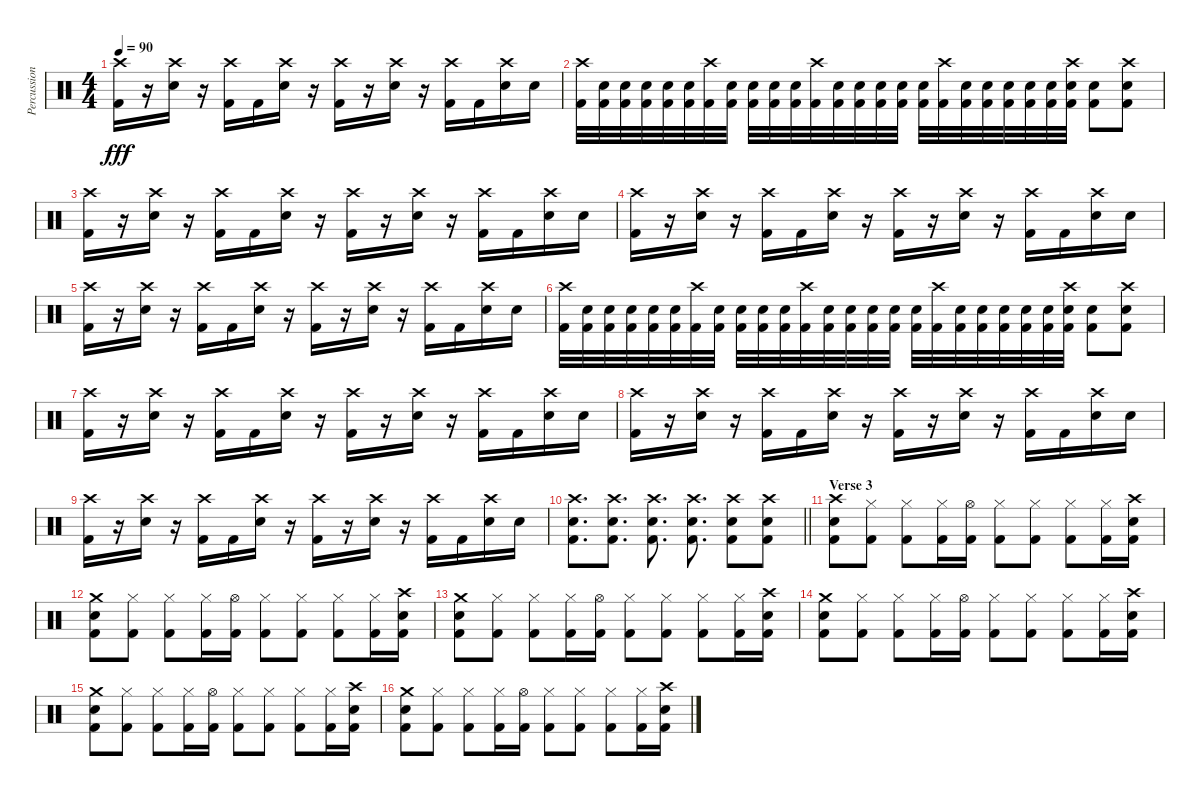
\track ("Percussion" "Percussion") {instrument percussion}
\staff {score}
\articulation defaults
\ts (4 4)
\tempo 90
\clef neutral
\ks c
("Crash high (hit)" "Kick (hit) 2").16{dy fff} r.16 ("Crash high (hit)" "Electric Snare (hit)").16 r.16 ("Crash high (hit)" "Kick (hit) 2").16 "Kick (hit) 2".16 ("Crash high (hit)" "Electric Snare (hit)").16 r.16 ("Crash high (hit)" "Kick (hit) 2").16 r.16 ("Crash high (hit)" "Electric Snare (hit)").16 r.16 ("Crash high (hit)" "Kick (hit) 2").16 "Kick (hit) 2".16 ("Crash high (hit)" "Electric Snare (hit)").16 "Electric Snare (hit)".16 |
("Crash high (hit)" "Kick (hit) 2").32 ("Electric Snare (hit)" "Kick (hit) 2").32 ("Electric Snare (hit)" "Kick (hit) 2").32 ("Electric Snare (hit)" "Kick (hit) 2").32 ("Electric Snare (hit)" "Kick (hit) 2").32 ("Electric Snare (hit)" "Kick (hit) 2").32 ("Crash high (hit)" "Kick (hit) 2").32 ("Electric Snare (hit)" "Kick (hit) 2").32 ("Electric Snare (hit)" "Kick (hit) 2").32 ("Electric Snare (hit)" "Kick (hit) 2").32 ("Electric Snare (hit)" "Kick (hit) 2").32 ("Crash high (hit)" "Kick (hit) 2").32 ("Electric Snare (hit)" "Kick (hit) 2").32 ("Electric Snare (hit)" "Kick (hit) 2").32 ("Electric Snare (hit)" "Kick (hit) 2").32 ("Electric Snare (hit)" "Kick (hit) 2").32 ("Electric Snare (hit)" "Kick (hit) 2").32 ("Crash high (hit)" "Kick (hit) 2").32 ("Electric Snare (hit)" "Kick (hit) 2").32 ("Electric Snare (hit)" "Kick (hit) 2").32 ("Electric Snare (hit)" "Kick (hit) 2").32 ("Electric Snare (hit)" "Kick (hit) 2").32 ("Electric Snare (hit)" "Kick (hit) 2").32 ("Crash high (hit)" "Electric Snare (hit)" "Kick (hit) 2").32 ("Electric Snare (hit)" "Kick (hit) 2").8 ("Crash high (hit)" "Electric Snare (hit)" "Kick (hit) 2").8 |
("Crash high (hit)" "Kick (hit) 2").16 r.16 ("Crash high (hit)" "Electric Snare (hit)").16 r.16 ("Crash high (hit)" "Kick (hit) 2").16 "Kick (hit) 2".16 ("Crash high (hit)" "Electric Snare (hit)").16 r.16 ("Crash high (hit)" "Kick (hit) 2").16 r.16 ("Crash high (hit)" "Electric Snare (hit)").16 r.16 ("Crash high (hit)" "Kick (hit) 2").16 "Kick (hit) 2".16 ("Crash high (hit)" "Electric Snare (hit)").16 "Electric Snare (hit)".16 |
("Crash high (hit)" "Kick (hit) 2").16 r.16 ("Crash high (hit)" "Electric Snare (hit)").16 r.16 ("Crash high (hit)" "Kick (hit) 2").16 "Kick (hit) 2".16 ("Crash high (hit)" "Electric Snare (hit)").16 r.16 ("Crash high (hit)" "Kick (hit) 2").16 r.16 ("Crash high (hit)" "Electric Snare (hit)").16 r.16 ("Crash high (hit)" "Kick (hit) 2").16 "Kick (hit) 2".16 ("Crash high (hit)" "Electric Snare (hit)").16 "Electric Snare (hit)".16 |
("Crash high (hit)" "Kick (hit) 2").16 r.16 ("Crash high (hit)" "Electric Snare (hit)").16 r.16 ("Crash high (hit)" "Kick (hit) 2").16 "Kick (hit) 2".16 ("Crash high (hit)" "Electric Snare (hit)").16 r.16 ("Crash high (hit)" "Kick (hit) 2").16 r.16 ("Crash high (hit)" "Electric Snare (hit)").16 r.16 ("Crash high (hit)" "Kick (hit) 2").16 "Kick (hit) 2".16 ("Crash high (hit)" "Electric Snare (hit)").16 "Electric Snare (hit)".16 |
("Crash high (hit)" "Kick (hit) 2").32 ("Electric Snare (hit)" "Kick (hit) 2").32 ("Electric Snare (hit)" "Kick (hit) 2").32 ("Electric Snare (hit)" "Kick (hit) 2").32 ("Electric Snare (hit)" "Kick (hit) 2").32 ("Electric Snare (hit)" "Kick (hit) 2").32 ("Crash high (hit)" "Kick (hit) 2").32 ("Electric Snare (hit)" "Kick (hit) 2").32 ("Electric Snare (hit)" "Kick (hit) 2").32 ("Electric Snare (hit)" "Kick (hit) 2").32 ("Electric Snare (hit)" "Kick (hit) 2").32 ("Crash high (hit)" "Kick (hit) 2").32 ("Electric Snare (hit)" "Kick (hit) 2").32 ("Electric Snare (hit)" "Kick (hit) 2").32 ("Electric Snare (hit)" "Kick (hit) 2").32 ("Electric Snare (hit)" "Kick (hit) 2").32 ("Electric Snare (hit)" "Kick (hit) 2").32 ("Crash high (hit)" "Kick (hit) 2").32 ("Electric Snare (hit)" "Kick (hit) 2").32 ("Electric Snare (hit)" "Kick (hit) 2").32 ("Electric Snare (hit)" "Kick (hit) 2").32 ("Electric Snare (hit)" "Kick (hit) 2").32 ("Electric Snare (hit)" "Kick (hit) 2").32 ("Crash high (hit)" "Electric Snare (hit)" "Kick (hit) 2").32 ("Electric Snare (hit)" "Kick (hit) 2").8 ("Crash high (hit)" "Electric Snare (hit)" "Kick (hit) 2").8 |
("Crash high (hit)" "Kick (hit) 2").16 r.16 ("Crash high (hit)" "Electric Snare (hit)").16 r.16 ("Crash high (hit)" "Kick (hit) 2").16 "Kick (hit) 2".16 ("Crash high (hit)" "Electric Snare (hit)").16 r.16 ("Crash high (hit)" "Kick (hit) 2").16 r.16 ("Crash high (hit)" "Electric Snare (hit)").16 r.16 ("Crash high (hit)" "Kick (hit) 2").16 "Kick (hit) 2".16 ("Crash high (hit)" "Electric Snare (hit)").16 "Electric Snare (hit)".16 |
("Crash high (hit)" "Kick (hit) 2").16 r.16 ("Crash high (hit)" "Electric Snare (hit)").16 r.16 ("Crash high (hit)" "Kick (hit) 2").16 "Kick (hit) 2".16 ("Crash high (hit)" "Electric Snare (hit)").16 r.16 ("Crash high (hit)" "Kick (hit) 2").16 r.16 ("Crash high (hit)" "Electric Snare (hit)").16 r.16 ("Crash high (hit)" "Kick (hit) 2").16 "Kick (hit) 2".16 ("Crash high (hit)" "Electric Snare (hit)").16 "Electric Snare (hit)".16 |
("Crash high (hit)" "Kick (hit) 2").16 r.16 ("Crash high (hit)" "Electric Snare (hit)").16 r.16 ("Crash high (hit)" "Kick (hit) 2").16 "Kick (hit) 2".16 ("Crash high (hit)" "Electric Snare (hit)").16 r.16 ("Crash high (hit)" "Kick (hit) 2").16 r.16 ("Crash high (hit)" "Electric Snare (hit)").16 r.16 ("Crash high (hit)" "Kick (hit) 2").16 "Kick (hit) 2".16 ("Crash high (hit)" "Electric Snare (hit)").16 "Electric Snare (hit)".16 |
\barLineRight lightlight
("Crash high (hit)" "Electric Snare (hit)" "Kick (hit) 2").8{d} ("Crash high (hit)" "Electric Snare (hit)" "Kick (hit) 2").8{d} ("Crash high (hit)" "Electric Snare (hit)" "Kick (hit) 2").8{d} ("Crash high (hit)" "Electric Snare (hit)" "Kick (hit) 2").8{d} ("Crash high (hit)" "Electric Snare (hit)" "Kick (hit) 2").8 ("Crash high (hit)" "Electric Snare (hit)" "Kick (hit) 2").8 |
\section ("" "Verse 3")
("Crash high (hit)" "Electric Snare (hit)" "Kick (hit) 2").8 ("Hi-Hat (closed)" "Kick (hit) 2").8 ("Hi-Hat (closed)" "Kick (hit) 2").8 ("Hi-Hat (closed)" "Kick (hit) 2").16 ("Hi-Hat (open)" "Kick (hit) 2").16 ("Hi-Hat (closed)" "Kick (hit) 2").8 ("Hi-Hat (closed)" "Kick (hit) 2").8 ("Hi-Hat (closed)" "Kick (hit) 2").8 ("Hi-Hat (closed)" "Kick (hit) 2").16 ("Crash high (hit)" "Electric Snare (hit)" "Kick (hit) 2").16 |
("Crash medium (hit)" "Electric Snare (hit)" "Kick (hit) 2").8 ("Hi-Hat (closed)" "Kick (hit) 2").8 ("Hi-Hat (closed)" "Kick (hit) 2").8 ("Hi-Hat (closed)" "Kick (hit) 2").16 ("Hi-Hat (open)" "Kick (hit) 2").16 ("Hi-Hat (closed)" "Kick (hit) 2").8 ("Hi-Hat (closed)" "Kick (hit) 2").8 ("Hi-Hat (closed)" "Kick (hit) 2").8 ("Hi-Hat (closed)" "Kick (hit) 2").16 ("Crash high (hit)" "Electric Snare (hit)" "Kick (hit) 2").16 |
("Crash medium (hit)" "Electric Snare (hit)" "Kick (hit) 2").8 ("Hi-Hat (closed)" "Kick (hit) 2").8 ("Hi-Hat (closed)" "Kick (hit) 2").8 ("Hi-Hat (closed)" "Kick (hit) 2").16 ("Hi-Hat (open)" "Kick (hit) 2").16 ("Hi-Hat (closed)" "Kick (hit) 2").8 ("Hi-Hat (closed)" "Kick (hit) 2").8 ("Hi-Hat (closed)" "Kick (hit) 2").8 ("Hi-Hat (closed)" "Kick (hit) 2").16 ("Crash high (hit)" "Electric Snare (hit)" "Kick (hit) 2").16 |
("Crash medium (hit)" "Electric Snare (hit)" "Kick (hit) 2").8 ("Hi-Hat (closed)" "Kick (hit) 2").8 ("Hi-Hat (closed)" "Kick (hit) 2").8 ("Hi-Hat (closed)" "Kick (hit) 2").16 ("Hi-Hat (open)" "Kick (hit) 2").16 ("Hi-Hat (closed)" "Kick (hit) 2").8 ("Hi-Hat (closed)" "Kick (hit) 2").8 ("Hi-Hat (closed)" "Kick (hit) 2").8 ("Hi-Hat (closed)" "Kick (hit) 2").16 ("Crash high (hit)" "Electric Snare (hit)" "Kick (hit) 2").16 |
("Crash medium (hit)" "Electric Snare (hit)" "Kick (hit) 2").8 ("Hi-Hat (closed)" "Kick (hit) 2").8 ("Hi-Hat (closed)" "Kick (hit) 2").8 ("Hi-Hat (closed)" "Kick (hit) 2").16 ("Hi-Hat (open)" "Kick (hit) 2").16 ("Hi-Hat (closed)" "Kick (hit) 2").8 ("Hi-Hat (closed)" "Kick (hit) 2").8 ("Hi-Hat (closed)" "Kick (hit) 2").8 ("Hi-Hat (closed)" "Kick (hit) 2").16 ("Crash high (hit)" "Electric Snare (hit)" "Kick (hit) 2").16 |
("Crash medium (hit)" "Electric Snare (hit)" "Kick (hit) 2").8 ("Hi-Hat (closed)" "Kick (hit) 2").8 ("Hi-Hat (closed)" "Kick (hit) 2").8 ("Hi-Hat (closed)" "Kick (hit) 2").16 ("Hi-Hat (open)" "Kick (hit) 2").16 ("Hi-Hat (closed)" "Kick (hit) 2").8 ("Hi-Hat (closed)" "Kick (hit) 2").8 ("Hi-Hat (closed)" "Kick (hit) 2").8 ("Hi-Hat (closed)" "Kick (hit) 2").16 ("Crash high (hit)" "Electric Snare (hit)" "Kick (hit) 2").16
